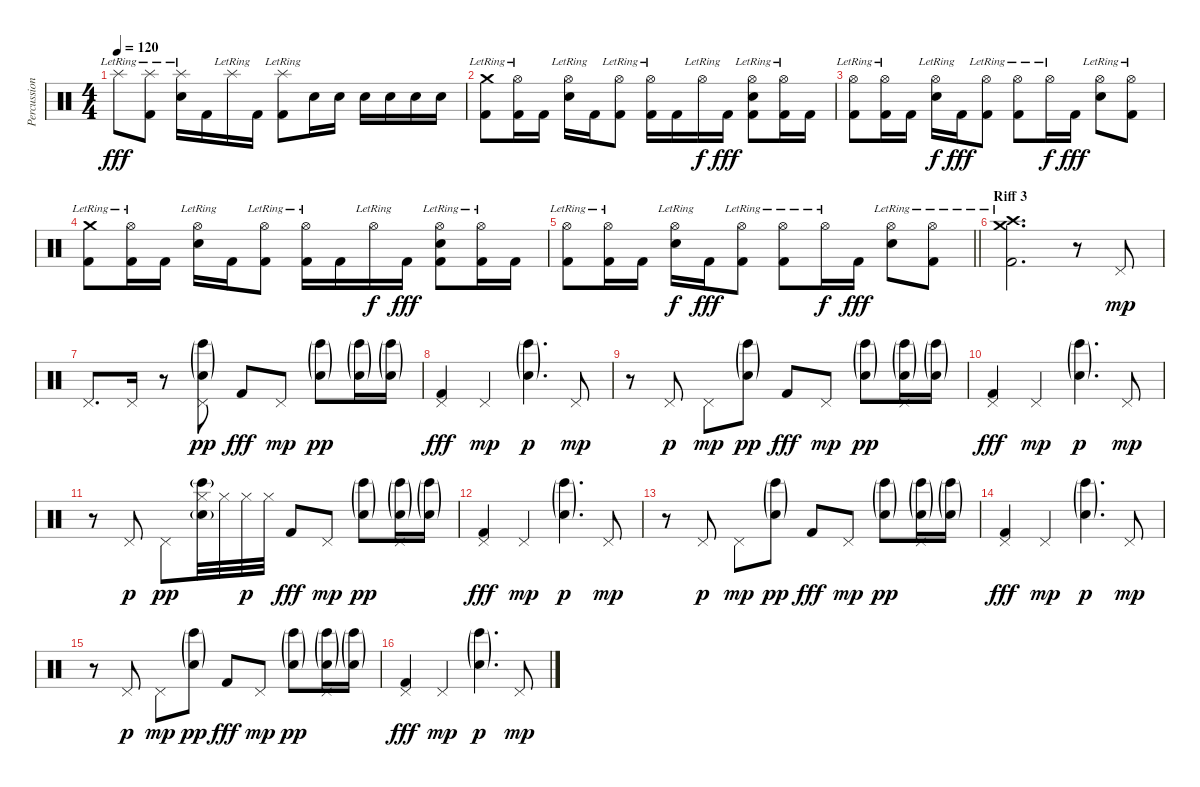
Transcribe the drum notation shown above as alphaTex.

\track ("Percussions" "Percussion") {instrument percussion}
\staff {score}
\articulation defaults
\ts (4 4)
\tempo 120
\clef neutral
\ks c "Splash (hit)"{lr}.8{dy fff}
("Splash (hit)"{lr} "Kick (hit) 2").8 ("Splash (hit)"{lr} "Electric Snare (hit)").16 "Kick (hit) 2".16 "Splash (hit)"{lr}.16 "Kick (hit) 2".16 ("Splash (hit)"{lr} "Kick (hit) 2").8 "Electric Snare (hit)".16 "Electric Snare (hit)".16 "Electric Snare (hit)".16 "Electric Snare (hit)".16 "Electric Snare (hit)".16 "Electric Snare (hit)".16 |
("Crash medium (hit)"{lr} "Kick (hit) 2").8 ("Hi-Hat (open)"{lr} "Kick (hit) 2").16 "Kick (hit) 2".16 ("Hi-Hat (open)"{lr} "Electric Snare (hit)").16 "Kick (hit) 2".16 ("Hi-Hat (open)"{lr} "Kick (hit) 2").8 ("Hi-Hat (open)"{lr} "Kick (hit) 2").16 "Kick (hit) 2".16 "Hi-Hat (open)"{lr}.16{dy f} "Kick (hit) 2".16{dy fff} ("Hi-Hat (open)"{lr} "Electric Snare (hit)" "Kick (hit) 2").8 ("Hi-Hat (open)"{lr} "Kick (hit) 2").16 "Kick (hit) 2".16 |
("Hi-Hat (open)"{lr} "Kick (hit) 2").8 ("Hi-Hat (open)"{lr} "Kick (hit) 2").16 "Kick (hit) 2".16 ("Hi-Hat (open)"{lr} "Electric Snare (hit)").16{dy f} "Kick (hit) 2".16{dy fff} ("Hi-Hat (open)"{lr} "Kick (hit) 2").8 ("Hi-Hat (open)"{lr} "Kick (hit) 2").8 "Hi-Hat (open)"{lr}.16{dy f} "Kick (hit) 2".16{dy fff} ("Hi-Hat (open)"{lr} "Electric Snare (hit)").8 ("Hi-Hat (open)"{lr} "Kick (hit) 2").8 |
("Crash medium (hit)"{lr} "Kick (hit) 2").8 ("Hi-Hat (open)"{lr} "Kick (hit) 2").16 "Kick (hit) 2".16 ("Hi-Hat (open)"{lr} "Electric Snare (hit)").16 "Kick (hit) 2".16 ("Hi-Hat (open)"{lr} "Kick (hit) 2").8 ("Hi-Hat (open)"{lr} "Kick (hit) 2").16 "Kick (hit) 2".16 "Hi-Hat (open)"{lr}.16{dy f} "Kick (hit) 2".16{dy fff} ("Hi-Hat (open)"{lr} "Electric Snare (hit)" "Kick (hit) 2").8 ("Hi-Hat (open)"{lr} "Kick (hit) 2").16 "Kick (hit) 2".16 |
\barLineRight lightlight
("Hi-Hat (open)"{lr} "Kick (hit) 2").8 ("Hi-Hat (open)"{lr} "Kick (hit) 2").16 "Kick (hit) 2".16 ("Hi-Hat (open)"{lr} "Electric Snare (hit)").16{dy f} "Kick (hit) 2".16{dy fff} ("Hi-Hat (open)"{lr} "Kick (hit) 2").8 ("Hi-Hat (open)"{lr} "Kick (hit) 2").8 "Hi-Hat (open)"{lr}.16{dy f} "Kick (hit) 2".16{dy fff} ("Hi-Hat (open)"{lr} "Electric Snare (hit)").8 ("Hi-Hat (open)"{lr} "Kick (hit) 2").8 |
\section ("" "Riff 3")
("Crash high (hit)"{lr} "Crash medium (hit)"{lr} "Kick (hit) 2").2{d} r.8 "Pedal Hi-Hat (hit)".8{dy mp} |
"Pedal Hi-Hat (hit)".8{d} "Pedal Hi-Hat (hit)".16 r.8 ("Pedal Hi-Hat (hit)" "Bongo High (hit)"{g} "Electric Snare (hit)"{g}).8{dy pp} "Kick (hit) 2".8{dy fff} "Pedal Hi-Hat (hit)".8{dy mp} ("Bongo High (hit)"{g} "Electric Snare (hit)"{g}).8{dy pp} ("Bongo High (hit)"{g} "Electric Snare (hit)"{g}).16 ("Bongo High (hit)"{g} "Electric Snare (hit)"{g}).16 |
("Pedal Hi-Hat (hit)" "Kick (hit) 2").4{dy fff} "Pedal Hi-Hat (hit)".4{dy mp} ("Bongo High (hit)"{g} "Electric Snare (hit)"{g}).4{d dy p} "Pedal Hi-Hat (hit)".8{dy mp} |
r.8 "Pedal Hi-Hat (hit)".8{dy p} "Pedal Hi-Hat (hit)".8{dy mp} ("Bongo High (hit)"{g} "Electric Snare (hit)"{g}).8{dy pp} "Kick (hit) 2".8{dy fff} "Pedal Hi-Hat (hit)".8{dy mp} ("Bongo High (hit)"{g} "Electric Snare (hit)"{g}).8{dy pp} ("Pedal Hi-Hat (hit)" "Bongo High (hit)"{g} "Electric Snare (hit)"{g}).16 ("Bongo High (hit)"{g} "Electric Snare (hit)"{g}).16 |
("Pedal Hi-Hat (hit)" "Kick (hit) 2").4{dy fff} "Pedal Hi-Hat (hit)".4{dy mp} ("Bongo High (hit)"{g} "Electric Snare (hit)"{g}).4{d dy p} "Pedal Hi-Hat (hit)".8{dy mp} |
r.8 "Pedal Hi-Hat (hit)".8{dy p} "Pedal Hi-Hat (hit)".8{dy pp} ("Hi-Hat (closed)" "Bongo High (hit)"{g} "Electric Snare (hit)"{g}).32 "Hi-Hat (closed)".32 "Hi-Hat (closed)".32{dy p} "Hi-Hat (closed)".32 "Kick (hit) 2".8{dy fff} "Pedal Hi-Hat (hit)".8{dy mp} ("Bongo High (hit)"{g} "Electric Snare (hit)"{g}).8{dy pp} ("Pedal Hi-Hat (hit)" "Bongo High (hit)"{g} "Electric Snare (hit)"{g}).16 ("Bongo High (hit)"{g} "Electric Snare (hit)"{g}).16 |
("Pedal Hi-Hat (hit)" "Kick (hit) 2").4{dy fff} "Pedal Hi-Hat (hit)".4{dy mp} ("Bongo High (hit)"{g} "Electric Snare (hit)"{g}).4{d dy p} "Pedal Hi-Hat (hit)".8{dy mp} |
r.8 "Pedal Hi-Hat (hit)".8{dy p} "Pedal Hi-Hat (hit)".8{dy mp} ("Bongo High (hit)"{g} "Electric Snare (hit)"{g}).8{dy pp} "Kick (hit) 2".8{dy fff} "Pedal Hi-Hat (hit)".8{dy mp} ("Bongo High (hit)"{g} "Electric Snare (hit)"{g}).8{dy pp} ("Pedal Hi-Hat (hit)" "Bongo High (hit)"{g} "Electric Snare (hit)"{g}).16 ("Bongo High (hit)"{g} "Electric Snare (hit)"{g}).16 |
("Pedal Hi-Hat (hit)" "Kick (hit) 2").4{dy fff} "Pedal Hi-Hat (hit)".4{dy mp} ("Bongo High (hit)"{g} "Electric Snare (hit)"{g}).4{d dy p} "Pedal Hi-Hat (hit)".8{dy mp} |
r.8 "Pedal Hi-Hat (hit)".8{dy p} "Pedal Hi-Hat (hit)".8{dy mp} ("Bongo High (hit)"{g} "Electric Snare (hit)"{g}).8{dy pp} "Kick (hit) 2".8{dy fff} "Pedal Hi-Hat (hit)".8{dy mp} ("Bongo High (hit)"{g} "Electric Snare (hit)"{g}).8{dy pp} ("Pedal Hi-Hat (hit)" "Bongo High (hit)"{g} "Electric Snare (hit)"{g}).16 ("Bongo High (hit)"{g} "Electric Snare (hit)"{g}).16 |
("Pedal Hi-Hat (hit)" "Kick (hit) 2").4{dy fff} "Pedal Hi-Hat (hit)".4{dy mp} ("Bongo High (hit)"{g} "Electric Snare (hit)"{g}).4{d dy p} "Pedal Hi-Hat (hit)".8{dy mp}
